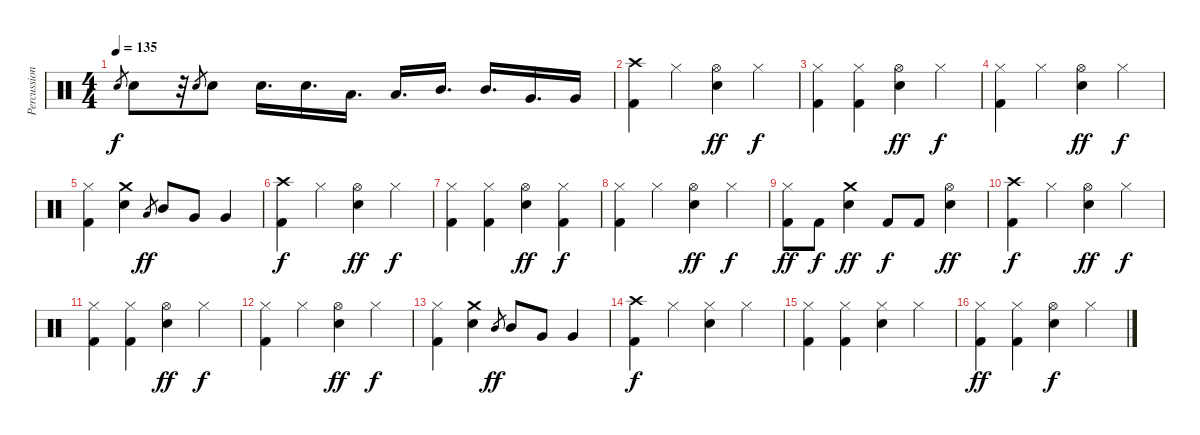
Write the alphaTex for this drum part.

\track ("Percussion" "Percussion") {instrument percussion}
\staff {score}
\articulation defaults
\ts (4 4)
\tempo 135
\clef neutral
\ks c "Electric Snare (hit)".8{gr dy f} "Electric Snare (hit)".8
r.32 "Electric Snare (hit)".8{gr} "Electric Snare (hit)".8 "Electric Snare (hit)".16{d} "Electric Snare (hit)".16{d} "Low Tom (hit)".16{d} "Low Tom (hit)".16{d} "Mid Tom (hit)".16{d} "Mid Tom (hit)".16{d} "Very Low Tom (hit)".16{d} "Very Low Tom (hit)".16 |
("Crash high (hit)" "Kick (hit) 2").4 "Hi-Hat (closed)".4 ("Hi-Hat (open)" "Electric Snare (hit)").4{dy ff} "Hi-Hat (closed)".4{dy f} |
("Hi-Hat (closed)" "Kick (hit) 2").4 ("Hi-Hat (closed)" "Kick (hit) 2").4 ("Hi-Hat (open)" "Electric Snare (hit)").4{dy ff} "Hi-Hat (closed)".4{dy f} |
("Hi-Hat (closed)" "Kick (hit) 2").4 "Hi-Hat (closed)".4 ("Hi-Hat (open)" "Electric Snare (hit)").4{dy ff} "Hi-Hat (closed)".4{dy f} |
("Hi-Hat (closed)" "Kick (hit) 2").4 ("Crash medium (hit)" "Electric Snare (hit)").4 "Low Tom (hit)".8{gr dy ff} "Mid Tom (hit)".8 "Very Low Tom (hit)".8 "Very Low Tom (hit)".4 |
("Crash high (hit)" "Kick (hit) 2").4{dy f} "Hi-Hat (closed)".4 ("Hi-Hat (open)" "Electric Snare (hit)").4{dy ff} "Hi-Hat (closed)".4{dy f} |
("Hi-Hat (closed)" "Kick (hit) 2").4 ("Hi-Hat (closed)" "Kick (hit) 2").4 ("Hi-Hat (open)" "Electric Snare (hit)").4{dy ff} ("Hi-Hat (closed)" "Kick (hit) 2").4{dy f} |
("Hi-Hat (closed)" "Kick (hit) 2").4 "Hi-Hat (closed)".4 ("Hi-Hat (open)" "Electric Snare (hit)").4{dy ff} "Hi-Hat (closed)".4{dy f} |
("Hi-Hat (closed)" "Kick (hit) 2").8{dy ff} "Kick (hit) 2".8{dy f} ("Crash medium (hit)" "Electric Snare (hit)").4{dy ff} "Kick (hit) 2".8{dy f} "Kick (hit) 2".8 ("Hi-Hat (open)" "Electric Snare (hit)").4{dy ff} |
("Crash high (hit)" "Kick (hit) 2").4{dy f} "Hi-Hat (closed)".4 ("Hi-Hat (open)" "Electric Snare (hit)").4{dy ff} "Hi-Hat (closed)".4{dy f} |
("Hi-Hat (closed)" "Kick (hit) 2").4 ("Hi-Hat (closed)" "Kick (hit) 2").4 ("Hi-Hat (open)" "Electric Snare (hit)").4{dy ff} "Hi-Hat (closed)".4{dy f} |
("Hi-Hat (closed)" "Kick (hit) 2").4 "Hi-Hat (closed)".4 ("Hi-Hat (open)" "Electric Snare (hit)").4{dy ff} "Hi-Hat (closed)".4{dy f} |
("Hi-Hat (closed)" "Kick (hit) 2").4 ("Crash medium (hit)" "Electric Snare (hit)").4 "Mid Tom (hit)".8{gr dy ff} "Mid Tom (hit)".8 "Very Low Tom (hit)".8 "Very Low Tom (hit)".4 |
("Crash high (hit)" "Kick (hit) 2").4{dy f} "Hi-Hat (closed)".4 ("Hi-Hat (closed)" "Electric Snare (hit)").4 "Hi-Hat (closed)".4 |
("Hi-Hat (closed)" "Kick (hit) 2").4 ("Hi-Hat (closed)" "Kick (hit) 2").4 ("Hi-Hat (closed)" "Electric Snare (hit)").4 "Hi-Hat (closed)".4 |
("Hi-Hat (closed)" "Kick (hit) 2").4{dy ff} ("Hi-Hat (closed)" "Kick (hit) 2").4 ("Hi-Hat (open)" "Electric Snare (hit)").4{dy f} "Hi-Hat (closed)".4
